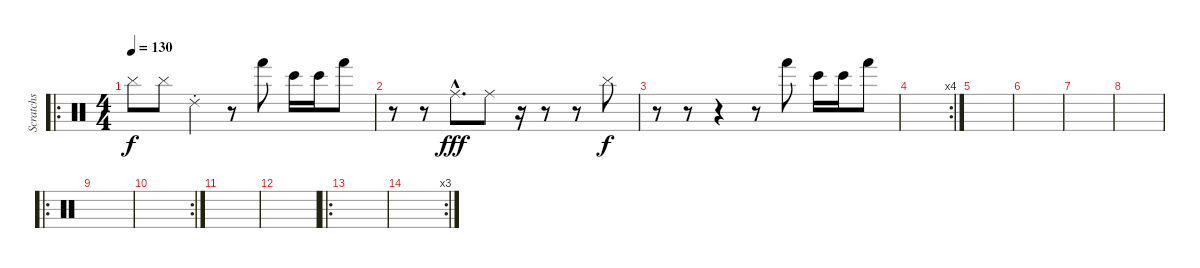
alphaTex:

\track ("Scratchs" "Scratchs") {instrument percussion}
\staff {score}
\articulation defaults
\ro
\ts (4 4)
\tempo 130
\clef neutral
\ks c "Cymbal (hit)".8{dy f} "Cymbal (hit)".8 "Ride (choke) 2".4
r.8 "Hand (hit)".8 "Bongo High (hit)".16 "Bongo High (hit)".16 "Hand (hit)".8 |
r.8 r.8 "Ride (middle)"{hac}.8{d dy fff} "Ride (middle)".8 r.16 r.8 r.8 "Cymbal (hit)".8{dy f} |
r.8 r.8 r.4 r.8 "Hand (hit)".8 "Bongo High (hit)".16 "Bongo High (hit)".16 "Hand (hit)".8 |
\rc 4
|
|
|
|
|
\ro
|
\rc 2
|
|
|
\ro
|
\rc 3
